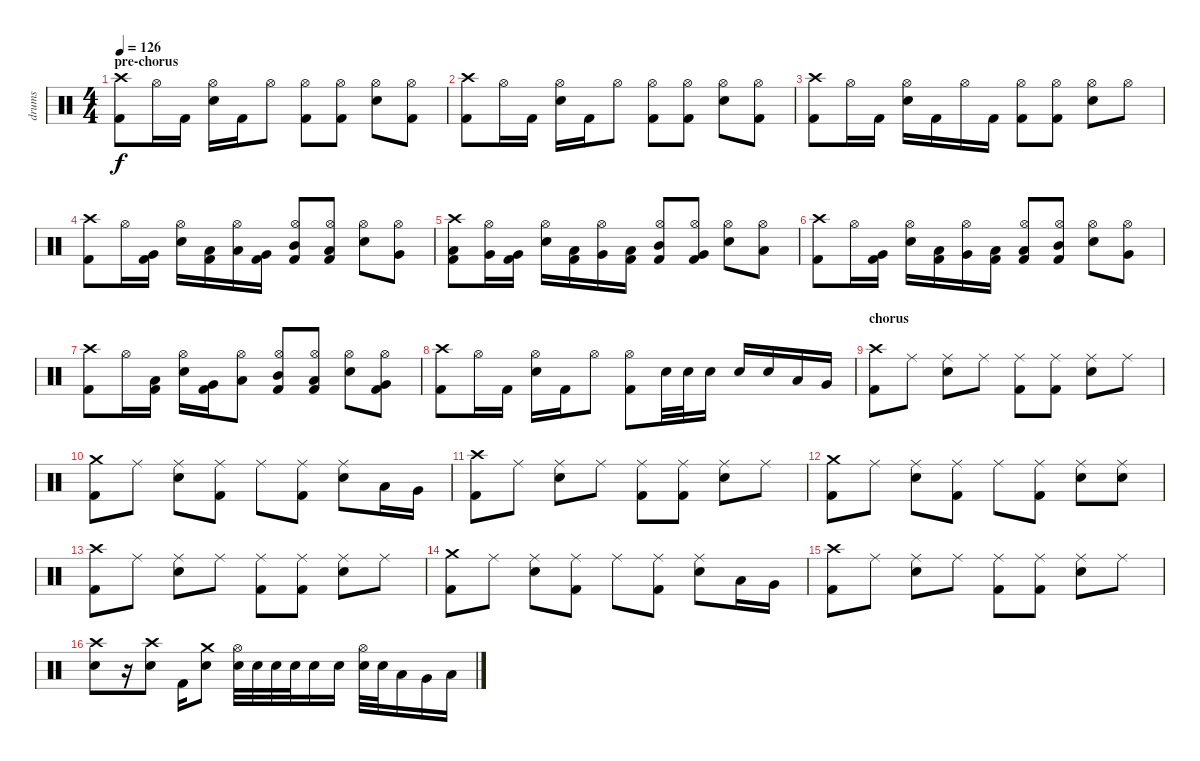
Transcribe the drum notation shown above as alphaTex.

\track ("drums" "drums") {instrument percussion}
\staff {score}
\articulation defaults
\ts (4 4)
\section ("" "pre-chorus")
\tempo 126
\clef neutral
\ks c
("Crash high (hit)" "Kick (hit) 2").8{dy f} "Hi-Hat (open)".16 "Kick (hit) 2".16 ("Hi-Hat (open)" "Electric Snare (hit)").16 "Kick (hit) 2".16 "Hi-Hat (open)".8 ("Hi-Hat (open)" "Kick (hit) 2").8 ("Hi-Hat (open)" "Kick (hit) 2").8 ("Hi-Hat (open)" "Electric Snare (hit)").8 ("Hi-Hat (open)" "Kick (hit) 2").8 |
("Crash high (hit)" "Kick (hit) 2").8 "Hi-Hat (open)".16 "Kick (hit) 2".16 ("Hi-Hat (open)" "Electric Snare (hit)").16 "Kick (hit) 2".16 "Hi-Hat (open)".8 ("Hi-Hat (open)" "Kick (hit) 2").8 ("Hi-Hat (open)" "Kick (hit) 2").8 ("Hi-Hat (open)" "Electric Snare (hit)").8 ("Hi-Hat (open)" "Kick (hit) 2").8 |
("Crash high (hit)" "Kick (hit) 2").8 "Hi-Hat (open)".16 "Kick (hit) 2".16 ("Hi-Hat (open)" "Electric Snare (hit)").16 "Kick (hit) 2".16 "Hi-Hat (open)".16 "Kick (hit) 2".16 ("Hi-Hat (open)" "Kick (hit) 2").8 ("Hi-Hat (open)" "Kick (hit) 2").8 ("Hi-Hat (open)" "Electric Snare (hit)").8 "Hi-Hat (open)".8 |
("Crash high (hit)" "Kick (hit) 2").8 "Hi-Hat (open)".16 ("Very Low Tom (hit)" "Kick (hit) 2").16 ("Hi-Hat (open)" "Electric Snare (hit)").16 ("Low Floor Tom (hit)" "Kick (hit) 2").16 ("Hi-Hat (open)" "Low Tom (hit)").16 ("Very Low Tom (hit)" "Kick (hit) 2").16 ("Hi-Hat (open)" "Mid Tom (hit)" "Kick (hit) 2").8 ("Hi-Hat (open)" "Low Tom (hit)" "Kick (hit) 2").8 ("Hi-Hat (open)" "Electric Snare (hit)").8 ("Hi-Hat (open)" "Very Low Tom (hit)").8 |
("Crash high (hit)" "Low Floor Tom (hit)" "Kick (hit) 2").8 ("Hi-Hat (open)" "Very Low Tom (hit)").16 ("Very Low Tom (hit)" "Kick (hit) 2").16 ("Hi-Hat (open)" "Electric Snare (hit)").16 ("Low Tom (hit)" "Kick (hit) 2").16 ("Hi-Hat (open)" "Very Low Tom (hit)").16 ("Low Floor Tom (hit)" "Kick (hit) 2").16 ("Hi-Hat (open)" "Mid Tom (hit)" "Kick (hit) 2").8 ("Hi-Hat (open)" "Very Low Tom (hit)" "Kick (hit) 2").8 ("Hi-Hat (open)" "Electric Snare (hit)").8 ("Hi-Hat (open)" "Low Floor Tom (hit)").8 |
("Crash high (hit)" "Kick (hit) 2").8 "Hi-Hat (open)".16 ("Very Low Tom (hit)" "Kick (hit) 2").16 ("Hi-Hat (open)" "Electric Snare (hit)").16 ("Low Tom (hit)" "Kick (hit) 2").16 ("Hi-Hat (open)" "Very Low Tom (hit)").16 ("Low Floor Tom (hit)" "Kick (hit) 2").16 ("Hi-Hat (open)" "Low Tom (hit)" "Kick (hit) 2").8 ("Hi-Hat (open)" "Mid Tom (hit)" "Kick (hit) 2").8 ("Hi-Hat (open)" "Electric Snare (hit)").8 ("Hi-Hat (open)" "Very Low Tom (hit)").8 |
("Crash high (hit)" "Kick (hit) 2").8 "Hi-Hat (open)".16 ("Low Floor Tom (hit)" "Kick (hit) 2").16 ("Hi-Hat (open)" "Electric Snare (hit)").16 ("Very Low Tom (hit)" "Kick (hit) 2").16 ("Hi-Hat (open)" "Low Tom (hit)").8 ("Hi-Hat (open)" "Mid Tom (hit)" "Kick (hit) 2").8 ("Hi-Hat (open)" "Low Tom (hit)" "Kick (hit) 2").8 ("Hi-Hat (open)" "Electric Snare (hit)").8 ("Hi-Hat (open)" "Very Low Tom (hit)" "Kick (hit) 2").8 |
("Crash high (hit)" "Kick (hit) 2").8 "Hi-Hat (open)".16 "Kick (hit) 2".16 ("Hi-Hat (open)" "Electric Snare (hit)").16 "Kick (hit) 2".16 "Hi-Hat (open)".8 ("Hi-Hat (open)" "Kick (hit) 2").8 "Electric Snare (hit)".32 "Electric Snare (hit)".32 "Electric Snare (hit)".16 "Electric Snare (hit)".16 "Electric Snare (hit)".16 "Low Tom (hit)".16 "Very Low Tom (hit)".16 |
\section ("" "chorus")
("Crash high (hit)" "Kick (hit) 2").8 "Ride (middle)".8 ("Ride (middle)" "Electric Snare (hit)").8 "Ride (middle)".8 ("Ride (middle)" "Kick (hit) 2").8 ("Ride (middle)" "Kick (hit) 2").8 ("Ride (middle)" "Electric Snare (hit)").8 "Ride (middle)".8 |
("Crash medium (hit)" "Kick (hit) 2").8 "Ride (middle)".8 ("Ride (middle)" "Electric Snare (hit)").8 ("Ride (middle)" "Kick (hit) 2").8 "Ride (middle)".8 ("Ride (middle)" "Kick (hit) 2").8 ("Ride (middle)" "Electric Snare (hit)").8 "Low Tom (hit)".16 "Very Low Tom (hit)".16 |
("Crash high (hit)" "Kick (hit) 2").8 "Ride (middle)".8 ("Ride (middle)" "Electric Snare (hit)").8 "Ride (middle)".8 ("Ride (middle)" "Kick (hit) 2").8 ("Ride (middle)" "Kick (hit) 2").8 ("Ride (middle)" "Electric Snare (hit)").8 "Ride (middle)".8 |
("Crash medium (hit)" "Kick (hit) 2").8 "Ride (middle)".8 ("Ride (middle)" "Electric Snare (hit)").8 ("Ride (middle)" "Kick (hit) 2").8 "Ride (middle)".8 ("Ride (middle)" "Kick (hit) 2").8 ("Ride (middle)" "Electric Snare (hit)").8 ("Ride (middle)" "Electric Snare (hit)").8 |
("Crash high (hit)" "Kick (hit) 2").8 "Ride (middle)".8 ("Ride (middle)" "Electric Snare (hit)").8 "Ride (middle)".8 ("Ride (middle)" "Kick (hit) 2").8 ("Ride (middle)" "Kick (hit) 2").8 ("Ride (middle)" "Electric Snare (hit)").8 "Ride (middle)".8 |
("Crash medium (hit)" "Kick (hit) 2").8 "Ride (middle)".8 ("Ride (middle)" "Electric Snare (hit)").8 ("Ride (middle)" "Kick (hit) 2").8 "Ride (middle)".8 ("Ride (middle)" "Kick (hit) 2").8 ("Ride (middle)" "Electric Snare (hit)").8 "Low Tom (hit)".16 "Very Low Tom (hit)".16 |
("Crash high (hit)" "Kick (hit) 2").8 "Ride (middle)".8 ("Ride (middle)" "Electric Snare (hit)").8 "Ride (middle)".8 ("Ride (middle)" "Kick (hit) 2").8 ("Ride (middle)" "Kick (hit) 2").8 ("Ride (middle)" "Electric Snare (hit)").8 "Ride (middle)".8 |
("Crash high (hit)" "Electric Snare (hit)").8 r.16 ("Crash high (hit)" "Electric Snare (hit)").8 "Kick (hit) 2".16 ("Crash medium (hit)" "Electric Snare (hit)").8 ("Hi-Hat (open)" "Electric Snare (hit)").32 "Electric Snare (hit)".32 "Electric Snare (hit)".32 "Electric Snare (hit)".32 "Electric Snare (hit)".16 "Electric Snare (hit)".16 ("Hi-Hat (open)" "Electric Snare (hit)").32 "Electric Snare (hit)".32 "Low Tom (hit)".16 "Very Low Tom (hit)".16 "Low Floor Tom (hit)".16
